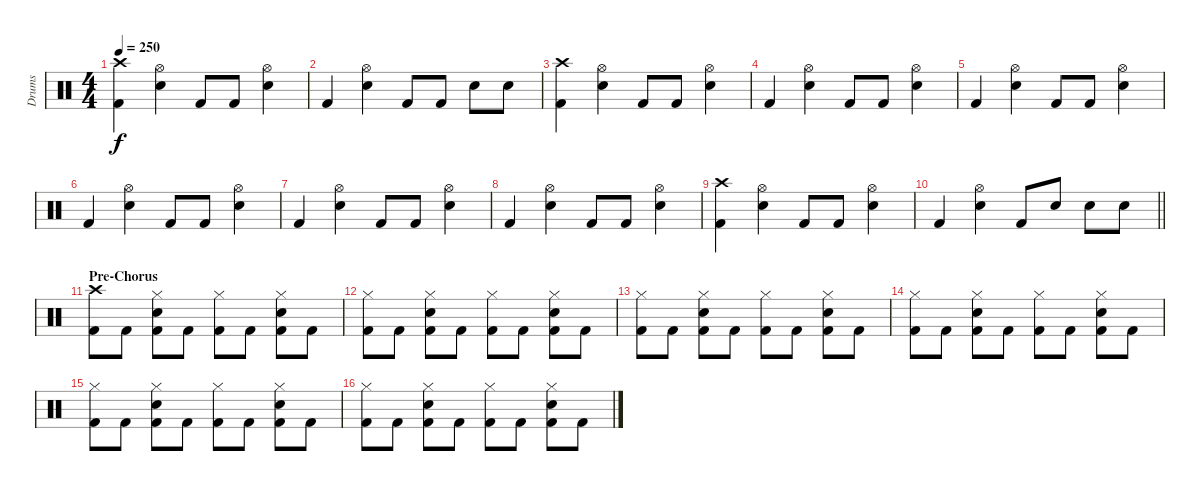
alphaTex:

\track ("Drums" "Drums") {instrument percussion}
\staff {score}
\articulation defaults
\ts (4 4)
\tempo 250
\clef neutral
\ks c
("Crash high (hit)" "Kick (hit) 2").4{dy f} ("Hi-Hat (open)" "Snare (hit) 2").4 "Kick (hit) 2".8 "Kick (hit) 2".8 ("Hi-Hat (open)" "Snare (hit) 2").4 |
"Kick (hit) 2".4 ("Hi-Hat (open)" "Snare (hit) 2").4 "Kick (hit) 2".8 "Kick (hit) 2".8 "Snare (hit) 2".8 "Snare (hit) 2".8 |
("Crash high (hit)" "Kick (hit) 2").4 ("Hi-Hat (open)" "Snare (hit) 2").4 "Kick (hit) 2".8 "Kick (hit) 2".8 ("Hi-Hat (open)" "Snare (hit) 2").4 |
"Kick (hit) 2".4 ("Hi-Hat (open)" "Snare (hit) 2").4 "Kick (hit) 2".8 "Kick (hit) 2".8 ("Hi-Hat (open)" "Snare (hit) 2").4 |
"Kick (hit) 2".4 ("Hi-Hat (open)" "Snare (hit) 2").4 "Kick (hit) 2".8 "Kick (hit) 2".8 ("Hi-Hat (open)" "Snare (hit) 2").4 |
"Kick (hit) 2".4 ("Hi-Hat (open)" "Snare (hit) 2").4 "Kick (hit) 2".8 "Kick (hit) 2".8 ("Hi-Hat (open)" "Snare (hit) 2").4 |
"Kick (hit) 2".4 ("Hi-Hat (open)" "Snare (hit) 2").4 "Kick (hit) 2".8 "Kick (hit) 2".8 ("Hi-Hat (open)" "Snare (hit) 2").4 |
"Kick (hit) 2".4 ("Hi-Hat (open)" "Snare (hit) 2").4 "Kick (hit) 2".8 "Kick (hit) 2".8 ("Hi-Hat (open)" "Snare (hit) 2").4 |
("Crash high (hit)" "Kick (hit) 2").4 ("Hi-Hat (open)" "Snare (hit) 2").4 "Kick (hit) 2".8 "Kick (hit) 2".8 ("Hi-Hat (open)" "Snare (hit) 2").4 |
\barLineRight lightlight "Kick (hit) 2".4
("Hi-Hat (open)" "Snare (hit) 2").4 "Kick (hit) 2".8 "Snare (hit) 2".8 "Snare (hit) 2".8 "Snare (hit) 2".8 |
\section ("" "Pre-Chorus")
("Crash high (hit)" "Kick (hit) 2").8 "Kick (hit) 2".8 ("Hi-Hat (closed)" "Snare (hit) 2" "Kick (hit) 2").8 "Kick (hit) 2".8 ("Hi-Hat (closed)" "Kick (hit) 2").8 "Kick (hit) 2".8 ("Hi-Hat (closed)" "Snare (hit) 2" "Kick (hit) 2").8 "Kick (hit) 2".8 |
("Hi-Hat (closed)" "Kick (hit) 2").8 "Kick (hit) 2".8 ("Hi-Hat (closed)" "Snare (hit) 2" "Kick (hit) 2").8 "Kick (hit) 2".8 ("Hi-Hat (closed)" "Kick (hit) 2").8 "Kick (hit) 2".8 ("Hi-Hat (closed)" "Snare (hit) 2" "Kick (hit) 2").8 "Kick (hit) 2".8 |
("Hi-Hat (closed)" "Kick (hit) 2").8 "Kick (hit) 2".8 ("Hi-Hat (closed)" "Snare (hit) 2" "Kick (hit) 2").8 "Kick (hit) 2".8 ("Hi-Hat (closed)" "Kick (hit) 2").8 "Kick (hit) 2".8 ("Hi-Hat (closed)" "Snare (hit) 2" "Kick (hit) 2").8 "Kick (hit) 2".8 |
("Hi-Hat (closed)" "Kick (hit) 2").8 "Kick (hit) 2".8 ("Hi-Hat (closed)" "Snare (hit) 2" "Kick (hit) 2").8 "Kick (hit) 2".8 ("Hi-Hat (closed)" "Kick (hit) 2").8 "Kick (hit) 2".8 ("Hi-Hat (closed)" "Snare (hit) 2" "Kick (hit) 2").8 "Kick (hit) 2".8 |
("Hi-Hat (closed)" "Kick (hit) 2").8 "Kick (hit) 2".8 ("Hi-Hat (closed)" "Snare (hit) 2" "Kick (hit) 2").8 "Kick (hit) 2".8 ("Hi-Hat (closed)" "Kick (hit) 2").8 "Kick (hit) 2".8 ("Hi-Hat (closed)" "Snare (hit) 2" "Kick (hit) 2").8 "Kick (hit) 2".8 |
("Hi-Hat (closed)" "Kick (hit) 2").8 "Kick (hit) 2".8 ("Hi-Hat (closed)" "Snare (hit) 2" "Kick (hit) 2").8 "Kick (hit) 2".8 ("Hi-Hat (closed)" "Kick (hit) 2").8 "Kick (hit) 2".8 ("Hi-Hat (closed)" "Snare (hit) 2" "Kick (hit) 2").8 "Kick (hit) 2".8
